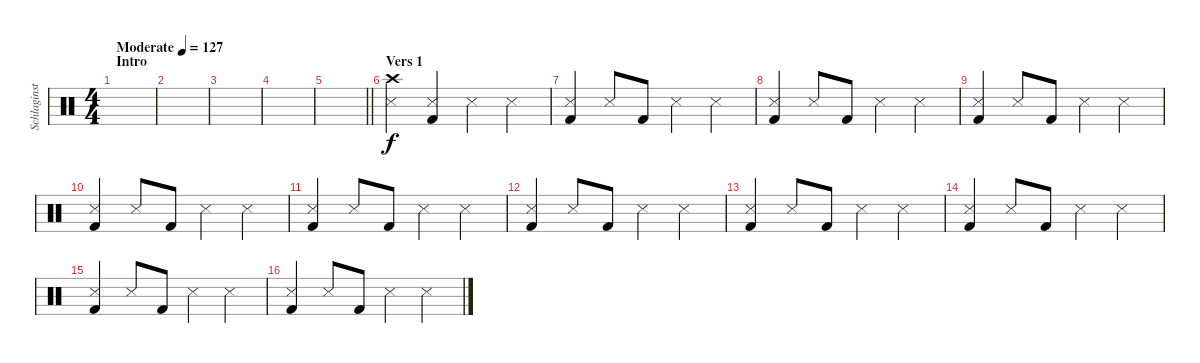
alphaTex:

\track ("Schlaginstrumente - Auswahl" "Schlaginst") {instrument percussion}
\staff {score}
\articulation defaults
\ts (4 4)
\section ("" "Intro")
\tempo (127 "Moderate")
\clef neutral
\ks c
|
|
|
|
\barLineRight lightlight
|
\section ("" "Vers 1")
("Crash high (hit)" "Snare (side stick) 3").4 ("Snare (side stick) 3" "Kick (hit) 2").4 "Snare (side stick) 3".4 "Snare (side stick) 3".4 |
("Snare (side stick) 3" "Kick (hit) 2").4 "Snare (side stick) 3".8 "Kick (hit) 2".8 "Snare (side stick) 3".4 "Snare (side stick) 3".4 |
("Snare (side stick) 3" "Kick (hit) 2").4 "Snare (side stick) 3".8 "Kick (hit) 2".8 "Snare (side stick) 3".4 "Snare (side stick) 3".4 |
("Snare (side stick) 3" "Kick (hit) 2").4 "Snare (side stick) 3".8 "Kick (hit) 2".8 "Snare (side stick) 3".4 "Snare (side stick) 3".4 |
("Snare (side stick) 3" "Kick (hit) 2").4 "Snare (side stick) 3".8 "Kick (hit) 2".8 "Snare (side stick) 3".4 "Snare (side stick) 3".4 |
("Snare (side stick) 3" "Kick (hit) 2").4 "Snare (side stick) 3".8 "Kick (hit) 2".8 "Snare (side stick) 3".4 "Snare (side stick) 3".4 |
("Snare (side stick) 3" "Kick (hit) 2").4 "Snare (side stick) 3".8 "Kick (hit) 2".8 "Snare (side stick) 3".4 "Snare (side stick) 3".4 |
("Snare (side stick) 3" "Kick (hit) 2").4 "Snare (side stick) 3".8 "Kick (hit) 2".8 "Snare (side stick) 3".4 "Snare (side stick) 3".4 |
("Snare (side stick) 3" "Kick (hit) 2").4 "Snare (side stick) 3".8 "Kick (hit) 2".8 "Snare (side stick) 3".4 "Snare (side stick) 3".4 |
("Snare (side stick) 3" "Kick (hit) 2").4 "Snare (side stick) 3".8 "Kick (hit) 2".8 "Snare (side stick) 3".4 "Snare (side stick) 3".4 |
("Snare (side stick) 3" "Kick (hit) 2").4 "Snare (side stick) 3".8 "Kick (hit) 2".8 "Snare (side stick) 3".4 "Snare (side stick) 3".4
